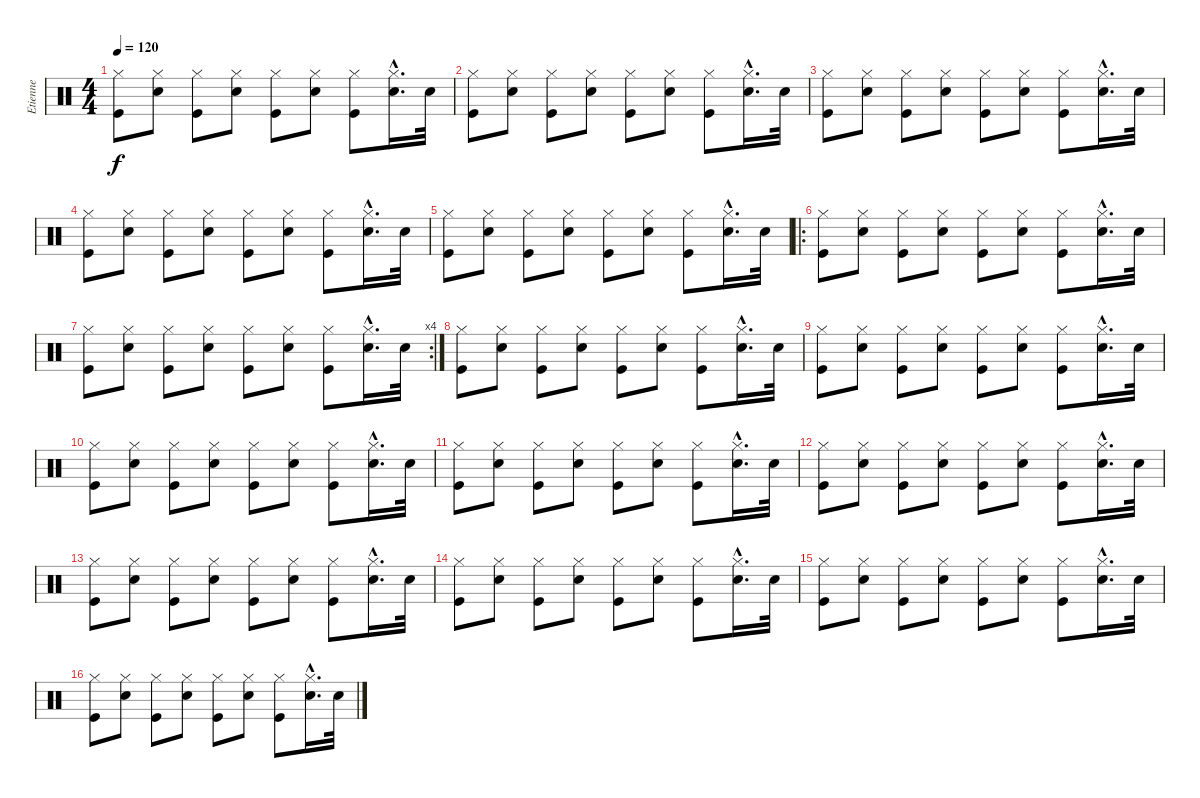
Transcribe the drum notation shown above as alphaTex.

\track ("Etienne" "Etienne") {instrument percussion}
\staff {score}
\articulation defaults
\ts (4 4)
\tempo 120
\clef neutral
\ks c
("Hi-Hat (closed)" "Kick (hit)").8{dy f} ("Hi-Hat (closed)" "Snare (hit) 2").8 ("Hi-Hat (closed)" "Kick (hit)").8 ("Hi-Hat (closed)" "Snare (hit) 2").8 ("Hi-Hat (closed)" "Kick (hit)").8 ("Hi-Hat (closed)" "Snare (hit) 2").8 ("Hi-Hat (closed)" "Kick (hit)").8 ("Hi-Hat (closed)"{hac} "Snare (hit) 2"{hac}).16{d} "Snare (hit) 2".32 |
("Hi-Hat (closed)" "Kick (hit)").8 ("Hi-Hat (closed)" "Snare (hit) 2").8 ("Hi-Hat (closed)" "Kick (hit)").8 ("Hi-Hat (closed)" "Snare (hit) 2").8 ("Hi-Hat (closed)" "Kick (hit)").8 ("Hi-Hat (closed)" "Snare (hit) 2").8 ("Hi-Hat (closed)" "Kick (hit)").8 ("Hi-Hat (closed)"{hac} "Snare (hit) 2"{hac}).16{d} "Snare (hit) 2".32 |
("Hi-Hat (closed)" "Kick (hit)").8 ("Hi-Hat (closed)" "Snare (hit) 2").8 ("Hi-Hat (closed)" "Kick (hit)").8 ("Hi-Hat (closed)" "Snare (hit) 2").8 ("Hi-Hat (closed)" "Kick (hit)").8 ("Hi-Hat (closed)" "Snare (hit) 2").8 ("Hi-Hat (closed)" "Kick (hit)").8 ("Hi-Hat (closed)"{hac} "Snare (hit) 2"{hac}).16{d} "Snare (hit) 2".32 |
("Hi-Hat (closed)" "Kick (hit)").8 ("Hi-Hat (closed)" "Snare (hit) 2").8 ("Hi-Hat (closed)" "Kick (hit)").8 ("Hi-Hat (closed)" "Snare (hit) 2").8 ("Hi-Hat (closed)" "Kick (hit)").8 ("Hi-Hat (closed)" "Snare (hit) 2").8 ("Hi-Hat (closed)" "Kick (hit)").8 ("Hi-Hat (closed)"{hac} "Snare (hit) 2"{hac}).16{d} "Snare (hit) 2".32 |
("Hi-Hat (closed)" "Kick (hit)").8 ("Hi-Hat (closed)" "Snare (hit) 2").8 ("Hi-Hat (closed)" "Kick (hit)").8 ("Hi-Hat (closed)" "Snare (hit) 2").8 ("Hi-Hat (closed)" "Kick (hit)").8 ("Hi-Hat (closed)" "Snare (hit) 2").8 ("Hi-Hat (closed)" "Kick (hit)").8 ("Hi-Hat (closed)"{hac} "Snare (hit) 2"{hac}).16{d} "Snare (hit) 2".32 |
\ro
("Hi-Hat (closed)" "Kick (hit)").8 ("Hi-Hat (closed)" "Snare (hit) 2").8 ("Hi-Hat (closed)" "Kick (hit)").8 ("Hi-Hat (closed)" "Snare (hit) 2").8 ("Hi-Hat (closed)" "Kick (hit)").8 ("Hi-Hat (closed)" "Snare (hit) 2").8 ("Hi-Hat (closed)" "Kick (hit)").8 ("Hi-Hat (closed)"{hac} "Snare (hit) 2"{hac}).16{d} "Snare (hit) 2".32 |
\rc 4
("Hi-Hat (closed)" "Kick (hit)").8 ("Hi-Hat (closed)" "Snare (hit) 2").8 ("Hi-Hat (closed)" "Kick (hit)").8 ("Hi-Hat (closed)" "Snare (hit) 2").8 ("Hi-Hat (closed)" "Kick (hit)").8 ("Hi-Hat (closed)" "Snare (hit) 2").8 ("Hi-Hat (closed)" "Kick (hit)").8 ("Hi-Hat (closed)"{hac} "Snare (hit) 2"{hac}).16{d} "Snare (hit) 2".32 |
("Hi-Hat (closed)" "Kick (hit)").8 ("Hi-Hat (closed)" "Snare (hit) 2").8 ("Hi-Hat (closed)" "Kick (hit)").8 ("Hi-Hat (closed)" "Snare (hit) 2").8 ("Hi-Hat (closed)" "Kick (hit)").8 ("Hi-Hat (closed)" "Snare (hit) 2").8 ("Hi-Hat (closed)" "Kick (hit)").8 ("Hi-Hat (closed)"{hac} "Snare (hit) 2"{hac}).16{d} "Snare (hit) 2".32 |
("Hi-Hat (closed)" "Kick (hit)").8 ("Hi-Hat (closed)" "Snare (hit) 2").8 ("Hi-Hat (closed)" "Kick (hit)").8 ("Hi-Hat (closed)" "Snare (hit) 2").8 ("Hi-Hat (closed)" "Kick (hit)").8 ("Hi-Hat (closed)" "Snare (hit) 2").8 ("Hi-Hat (closed)" "Kick (hit)").8 ("Hi-Hat (closed)"{hac} "Snare (hit) 2"{hac}).16{d} "Snare (hit) 2".32 |
("Hi-Hat (closed)" "Kick (hit)").8 ("Hi-Hat (closed)" "Snare (hit) 2").8 ("Hi-Hat (closed)" "Kick (hit)").8 ("Hi-Hat (closed)" "Snare (hit) 2").8 ("Hi-Hat (closed)" "Kick (hit)").8 ("Hi-Hat (closed)" "Snare (hit) 2").8 ("Hi-Hat (closed)" "Kick (hit)").8 ("Hi-Hat (closed)"{hac} "Snare (hit) 2"{hac}).16{d} "Snare (hit) 2".32 |
("Hi-Hat (closed)" "Kick (hit)").8 ("Hi-Hat (closed)" "Snare (hit) 2").8 ("Hi-Hat (closed)" "Kick (hit)").8 ("Hi-Hat (closed)" "Snare (hit) 2").8 ("Hi-Hat (closed)" "Kick (hit)").8 ("Hi-Hat (closed)" "Snare (hit) 2").8 ("Hi-Hat (closed)" "Kick (hit)").8 ("Hi-Hat (closed)"{hac} "Snare (hit) 2"{hac}).16{d} "Snare (hit) 2".32 |
("Hi-Hat (closed)" "Kick (hit)").8 ("Hi-Hat (closed)" "Snare (hit) 2").8 ("Hi-Hat (closed)" "Kick (hit)").8 ("Hi-Hat (closed)" "Snare (hit) 2").8 ("Hi-Hat (closed)" "Kick (hit)").8 ("Hi-Hat (closed)" "Snare (hit) 2").8 ("Hi-Hat (closed)" "Kick (hit)").8 ("Hi-Hat (closed)"{hac} "Snare (hit) 2"{hac}).16{d} "Snare (hit) 2".32 |
("Hi-Hat (closed)" "Kick (hit)").8 ("Hi-Hat (closed)" "Snare (hit) 2").8 ("Hi-Hat (closed)" "Kick (hit)").8 ("Hi-Hat (closed)" "Snare (hit) 2").8 ("Hi-Hat (closed)" "Kick (hit)").8 ("Hi-Hat (closed)" "Snare (hit) 2").8 ("Hi-Hat (closed)" "Kick (hit)").8 ("Hi-Hat (closed)"{hac} "Snare (hit) 2"{hac}).16{d} "Snare (hit) 2".32 |
("Hi-Hat (closed)" "Kick (hit)").8 ("Hi-Hat (closed)" "Snare (hit) 2").8 ("Hi-Hat (closed)" "Kick (hit)").8 ("Hi-Hat (closed)" "Snare (hit) 2").8 ("Hi-Hat (closed)" "Kick (hit)").8 ("Hi-Hat (closed)" "Snare (hit) 2").8 ("Hi-Hat (closed)" "Kick (hit)").8 ("Hi-Hat (closed)"{hac} "Snare (hit) 2"{hac}).16{d} "Snare (hit) 2".32 |
("Hi-Hat (closed)" "Kick (hit)").8 ("Hi-Hat (closed)" "Snare (hit) 2").8 ("Hi-Hat (closed)" "Kick (hit)").8 ("Hi-Hat (closed)" "Snare (hit) 2").8 ("Hi-Hat (closed)" "Kick (hit)").8 ("Hi-Hat (closed)" "Snare (hit) 2").8 ("Hi-Hat (closed)" "Kick (hit)").8 ("Hi-Hat (closed)"{hac} "Snare (hit) 2"{hac}).16{d} "Snare (hit) 2".32 |
("Hi-Hat (closed)" "Kick (hit)").8 ("Hi-Hat (closed)" "Snare (hit) 2").8 ("Hi-Hat (closed)" "Kick (hit)").8 ("Hi-Hat (closed)" "Snare (hit) 2").8 ("Hi-Hat (closed)" "Kick (hit)").8 ("Hi-Hat (closed)" "Snare (hit) 2").8 ("Hi-Hat (closed)" "Kick (hit)").8 ("Hi-Hat (closed)"{hac} "Snare (hit) 2"{hac}).16{d} "Snare (hit) 2".32
